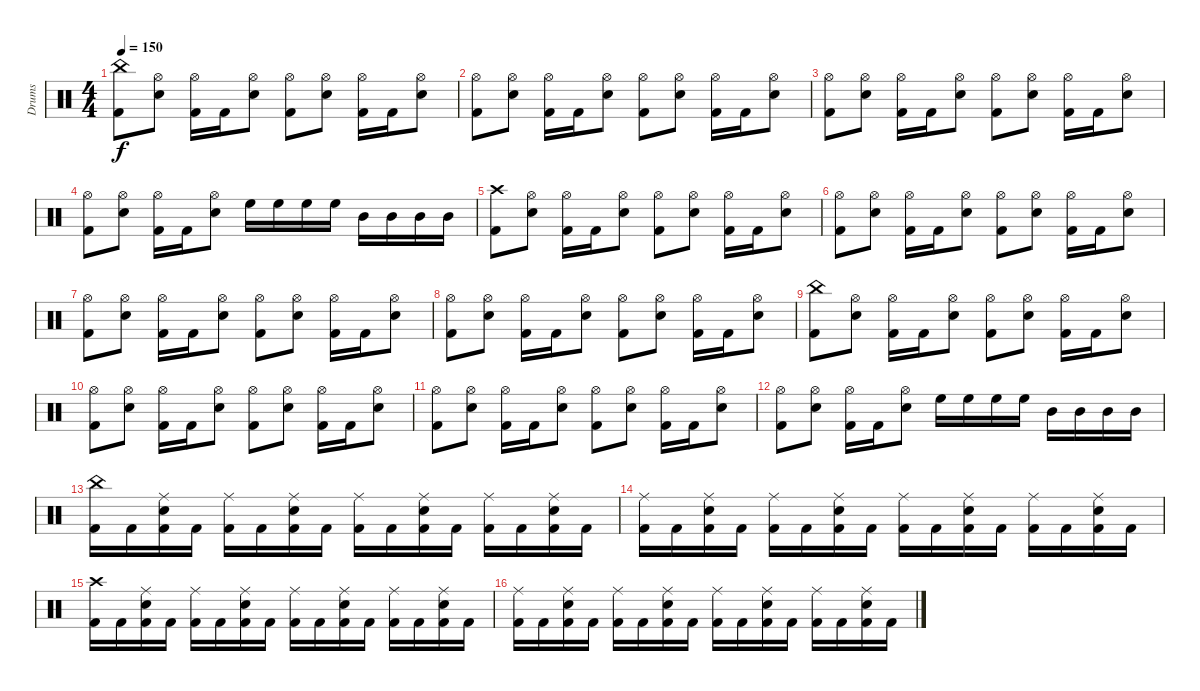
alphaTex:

\track ("Drums" "Drums") {instrument percussion}
\staff {score}
\articulation defaults
\ts (4 4)
\tempo 150
\clef neutral
\ks c
("China (hit)" "Kick (hit) 2").8{dy f} ("Hi-Hat (open)" "Snare (hit) 2").8 ("Hi-Hat (open)" "Kick (hit) 2").16 "Kick (hit) 2".16 ("Hi-Hat (open)" "Snare (hit) 2").8 ("Hi-Hat (open)" "Kick (hit) 2").8 ("Hi-Hat (open)" "Snare (hit) 2").8 ("Hi-Hat (open)" "Kick (hit) 2").16 "Kick (hit) 2".16 ("Hi-Hat (open)" "Snare (hit) 2").8 |
("Hi-Hat (open)" "Kick (hit) 2").8 ("Hi-Hat (open)" "Snare (hit) 2").8 ("Hi-Hat (open)" "Kick (hit) 2").16 "Kick (hit) 2".16 ("Hi-Hat (open)" "Snare (hit) 2").8 ("Hi-Hat (open)" "Kick (hit) 2").8 ("Hi-Hat (open)" "Snare (hit) 2").8 ("Hi-Hat (open)" "Kick (hit) 2").16 "Kick (hit) 2".16 ("Hi-Hat (open)" "Snare (hit) 2").8 |
("Hi-Hat (open)" "Kick (hit) 2").8 ("Hi-Hat (open)" "Snare (hit) 2").8 ("Hi-Hat (open)" "Kick (hit) 2").16 "Kick (hit) 2".16 ("Hi-Hat (open)" "Snare (hit) 2").8 ("Hi-Hat (open)" "Kick (hit) 2").8 ("Hi-Hat (open)" "Snare (hit) 2").8 ("Hi-Hat (open)" "Kick (hit) 2").16 "Kick (hit) 2".16 ("Hi-Hat (open)" "Snare (hit) 2").8 |
("Hi-Hat (open)" "Kick (hit) 2").8 ("Hi-Hat (open)" "Snare (hit) 2").8 ("Hi-Hat (open)" "Kick (hit) 2").16 "Kick (hit) 2".16 ("Hi-Hat (open)" "Snare (hit) 2").8 "High Floor Tom (hit)".16 "High Floor Tom (hit)".16 "High Floor Tom (hit)".16 "High Floor Tom (hit)".16 "Mid Tom (hit)".16 "Mid Tom (hit)".16 "Mid Tom (hit)".16 "Mid Tom (hit)".16 |
("Crash high (hit)" "Kick (hit) 2").8 ("Hi-Hat (open)" "Snare (hit) 2").8 ("Hi-Hat (open)" "Kick (hit) 2").16 "Kick (hit) 2".16 ("Hi-Hat (open)" "Snare (hit) 2").8 ("Hi-Hat (open)" "Kick (hit) 2").8 ("Hi-Hat (open)" "Snare (hit) 2").8 ("Hi-Hat (open)" "Kick (hit) 2").16 "Kick (hit) 2".16 ("Hi-Hat (open)" "Snare (hit) 2").8 |
("Hi-Hat (open)" "Kick (hit) 2").8 ("Hi-Hat (open)" "Snare (hit) 2").8 ("Hi-Hat (open)" "Kick (hit) 2").16 "Kick (hit) 2".16 ("Hi-Hat (open)" "Snare (hit) 2").8 ("Hi-Hat (open)" "Kick (hit) 2").8 ("Hi-Hat (open)" "Snare (hit) 2").8 ("Hi-Hat (open)" "Kick (hit) 2").16 "Kick (hit) 2".16 ("Hi-Hat (open)" "Snare (hit) 2").8 |
("Hi-Hat (open)" "Kick (hit) 2").8 ("Hi-Hat (open)" "Snare (hit) 2").8 ("Hi-Hat (open)" "Kick (hit) 2").16 "Kick (hit) 2".16 ("Hi-Hat (open)" "Snare (hit) 2").8 ("Hi-Hat (open)" "Kick (hit) 2").8 ("Hi-Hat (open)" "Snare (hit) 2").8 ("Hi-Hat (open)" "Kick (hit) 2").16 "Kick (hit) 2".16 ("Hi-Hat (open)" "Snare (hit) 2").8 |
("Hi-Hat (open)" "Kick (hit) 2").8 ("Hi-Hat (open)" "Snare (hit) 2").8 ("Hi-Hat (open)" "Kick (hit) 2").16 "Kick (hit) 2".16 ("Hi-Hat (open)" "Snare (hit) 2").8 ("Hi-Hat (open)" "Kick (hit) 2").8 ("Hi-Hat (open)" "Snare (hit) 2").8 ("Hi-Hat (open)" "Kick (hit) 2").16 "Kick (hit) 2".16 ("Hi-Hat (open)" "Snare (hit) 2").8 |
("China (hit)" "Kick (hit) 2").8 ("Hi-Hat (open)" "Snare (hit) 2").8 ("Hi-Hat (open)" "Kick (hit) 2").16 "Kick (hit) 2".16 ("Hi-Hat (open)" "Snare (hit) 2").8 ("Hi-Hat (open)" "Kick (hit) 2").8 ("Hi-Hat (open)" "Snare (hit) 2").8 ("Hi-Hat (open)" "Kick (hit) 2").16 "Kick (hit) 2".16 ("Hi-Hat (open)" "Snare (hit) 2").8 |
("Hi-Hat (open)" "Kick (hit) 2").8 ("Hi-Hat (open)" "Snare (hit) 2").8 ("Hi-Hat (open)" "Kick (hit) 2").16 "Kick (hit) 2".16 ("Hi-Hat (open)" "Snare (hit) 2").8 ("Hi-Hat (open)" "Kick (hit) 2").8 ("Hi-Hat (open)" "Snare (hit) 2").8 ("Hi-Hat (open)" "Kick (hit) 2").16 "Kick (hit) 2".16 ("Hi-Hat (open)" "Snare (hit) 2").8 |
("Hi-Hat (open)" "Kick (hit) 2").8 ("Hi-Hat (open)" "Snare (hit) 2").8 ("Hi-Hat (open)" "Kick (hit) 2").16 "Kick (hit) 2".16 ("Hi-Hat (open)" "Snare (hit) 2").8 ("Hi-Hat (open)" "Kick (hit) 2").8 ("Hi-Hat (open)" "Snare (hit) 2").8 ("Hi-Hat (open)" "Kick (hit) 2").16 "Kick (hit) 2".16 ("Hi-Hat (open)" "Snare (hit) 2").8 |
("Hi-Hat (open)" "Kick (hit) 2").8 ("Hi-Hat (open)" "Snare (hit) 2").8 ("Hi-Hat (open)" "Kick (hit) 2").16 "Kick (hit) 2".16 ("Hi-Hat (open)" "Snare (hit) 2").8 "High Floor Tom (hit)".16 "High Floor Tom (hit)".16 "High Floor Tom (hit)".16 "High Floor Tom (hit)".16 "Mid Tom (hit)".16 "Mid Tom (hit)".16 "Mid Tom (hit)".16 "Mid Tom (hit)".16 |
("China (hit)" "Kick (hit) 2").16 "Kick (hit) 2".16 ("Ride (middle)" "Snare (hit) 2" "Kick (hit) 2").16 "Kick (hit) 2".16 ("Ride (middle)" "Kick (hit) 2").16 "Kick (hit) 2".16 ("Ride (middle)" "Snare (hit) 2" "Kick (hit) 2").16 "Kick (hit) 2".16 ("Ride (middle)" "Kick (hit) 2").16 "Kick (hit) 2".16 ("Ride (middle)" "Snare (hit) 2" "Kick (hit) 2").16 "Kick (hit) 2".16 ("Ride (middle)" "Kick (hit) 2").16 "Kick (hit) 2".16 ("Ride (middle)" "Snare (hit) 2" "Kick (hit) 2").16 "Kick (hit) 2".16 |
("Ride (middle)" "Kick (hit) 2").16 "Kick (hit) 2".16 ("Ride (middle)" "Snare (hit) 2" "Kick (hit) 2").16 "Kick (hit) 2".16 ("Ride (middle)" "Kick (hit) 2").16 "Kick (hit) 2".16 ("Ride (middle)" "Snare (hit) 2" "Kick (hit) 2").16 "Kick (hit) 2".16 ("Ride (middle)" "Kick (hit) 2").16 "Kick (hit) 2".16 ("Ride (middle)" "Snare (hit) 2" "Kick (hit) 2").16 "Kick (hit) 2".16 ("Ride (middle)" "Kick (hit) 2").16 "Kick (hit) 2".16 ("Ride (middle)" "Snare (hit) 2" "Kick (hit) 2").16 "Kick (hit) 2".16 |
("Crash high (hit)" "Kick (hit) 2").16 "Kick (hit) 2".16 ("Ride (middle)" "Snare (hit) 2" "Kick (hit) 2").16 "Kick (hit) 2".16 ("Ride (middle)" "Kick (hit) 2").16 "Kick (hit) 2".16 ("Ride (middle)" "Snare (hit) 2" "Kick (hit) 2").16 "Kick (hit) 2".16 ("Ride (middle)" "Kick (hit) 2").16 "Kick (hit) 2".16 ("Ride (middle)" "Snare (hit) 2" "Kick (hit) 2").16 "Kick (hit) 2".16 ("Ride (middle)" "Kick (hit) 2").16 "Kick (hit) 2".16 ("Ride (middle)" "Snare (hit) 2" "Kick (hit) 2").16 "Kick (hit) 2".16 |
("Ride (middle)" "Kick (hit) 2").16 "Kick (hit) 2".16 ("Ride (middle)" "Snare (hit) 2" "Kick (hit) 2").16 "Kick (hit) 2".16 ("Ride (middle)" "Kick (hit) 2").16 "Kick (hit) 2".16 ("Ride (middle)" "Snare (hit) 2" "Kick (hit) 2").16 "Kick (hit) 2".16 ("Ride (middle)" "Kick (hit) 2").16 "Kick (hit) 2".16 ("Ride (middle)" "Snare (hit) 2" "Kick (hit) 2").16 "Kick (hit) 2".16 ("Ride (middle)" "Kick (hit) 2").16 "Kick (hit) 2".16 ("Ride (middle)" "Snare (hit) 2" "Kick (hit) 2").16 "Kick (hit) 2".16
